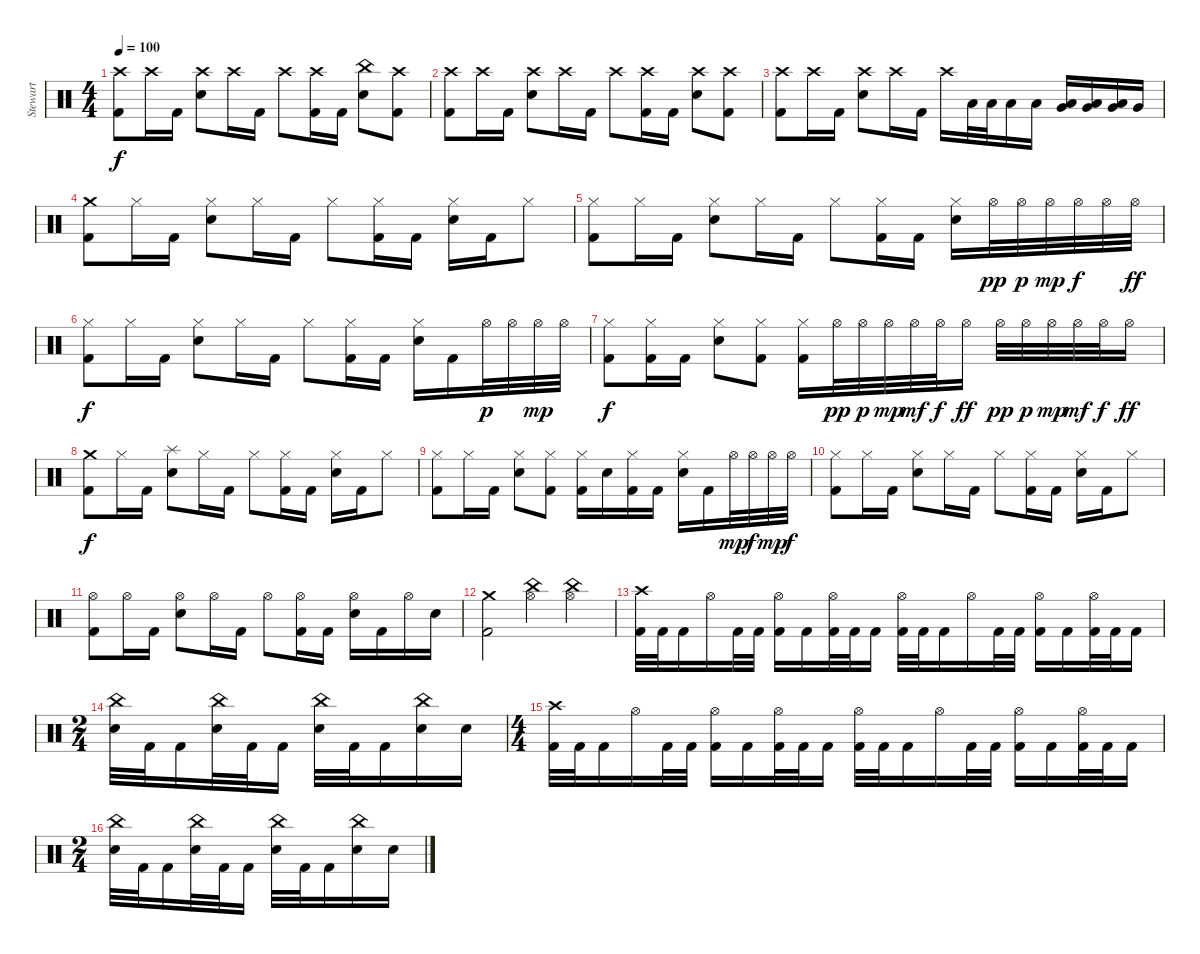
\track ("Stewart" "Stewart") {instrument percussion}
\staff {score}
\articulation defaults
\ts (4 4)
\tempo 100
\clef neutral
\ks c
("Crash high (hit)" "Kick (hit) 2").8{dy f} "Crash high (hit)".16 "Kick (hit) 2".16 ("Crash high (hit)" "Electric Snare (hit)").8 "Crash high (hit)".16 "Kick (hit) 2".16 "Crash high (hit)".8 ("Crash high (hit)" "Kick (hit) 2").16 "Kick (hit) 2".16 ("China (hit)" "Electric Snare (hit)").8 ("Crash high (hit)" "Kick (hit) 2").8 |
("Crash high (hit)" "Kick (hit) 2").8 "Crash high (hit)".16 "Kick (hit) 2".16 ("Crash high (hit)" "Electric Snare (hit)").8 "Crash high (hit)".16 "Kick (hit) 2".16 "Crash high (hit)".8 ("Crash high (hit)" "Kick (hit) 2").16 "Kick (hit) 2".16 ("Crash high (hit)" "Electric Snare (hit)").8 ("Crash high (hit)" "Kick (hit) 2").8 |
("Crash high (hit)" "Kick (hit) 2").8 "Crash high (hit)".16 "Kick (hit) 2".16 ("Crash high (hit)" "Electric Snare (hit)").8 "Crash high (hit)".16 "Kick (hit) 2".16 "Crash high (hit)".16 "Low Tom (hit)".32 "Low Tom (hit)".32 "Low Tom (hit)".16 "Low Tom (hit)".16 ("Low Tom (hit)" "Very Low Tom (hit)").16 ("Low Tom (hit)" "Very Low Tom (hit)").16 ("Low Tom (hit)" "Very Low Tom (hit)").16 "Very Low Tom (hit)".16 |
("Crash medium (hit)" "Kick (hit) 2").8 "Hi-Hat (closed)".16 "Kick (hit) 2".16 ("Hi-Hat (closed)" "Electric Snare (hit)").8 "Hi-Hat (closed)".16 "Kick (hit) 2".16 "Hi-Hat (closed)".8 ("Hi-Hat (closed)" "Kick (hit) 2").16 "Kick (hit) 2".16 ("Hi-Hat (closed)" "Electric Snare (hit)").16 "Kick (hit) 2".16 "Hi-Hat (closed)".8 |
("Hi-Hat (closed)" "Kick (hit) 2").8 "Hi-Hat (closed)".16 "Kick (hit) 2".16 ("Hi-Hat (closed)" "Electric Snare (hit)").8 "Hi-Hat (closed)".16 "Kick (hit) 2".16 "Hi-Hat (closed)".8 ("Hi-Hat (closed)" "Kick (hit) 2").16 "Kick (hit) 2".16 ("Hi-Hat (closed)" "Electric Snare (hit)").16 "Hi-Hat (open)".32{dy pp} "Hi-Hat (open)".32{dy p} "Hi-Hat (open)".32{dy mp} "Hi-Hat (open)".32{dy f} "Hi-Hat (open)".32 "Hi-Hat (open)".32{dy ff} |
("Hi-Hat (closed)" "Kick (hit) 2").8{dy f} "Hi-Hat (closed)".16 "Kick (hit) 2".16 ("Hi-Hat (closed)" "Electric Snare (hit)").8 "Hi-Hat (closed)".16 "Kick (hit) 2".16 "Hi-Hat (closed)".8 ("Hi-Hat (closed)" "Kick (hit) 2").16 "Kick (hit) 2".16 ("Hi-Hat (closed)" "Electric Snare (hit)").16 "Kick (hit) 2".16 "Hi-Hat (open)".32{dy p} "Hi-Hat (open)".32 "Hi-Hat (open)".32{dy mp} "Hi-Hat (open)".32 |
("Hi-Hat (closed)" "Kick (hit) 2").8{dy f} ("Hi-Hat (closed)" "Kick (hit) 2").16 "Kick (hit) 2".16 ("Hi-Hat (closed)" "Electric Snare (hit)").8 ("Hi-Hat (closed)" "Kick (hit) 2").8 ("Hi-Hat (closed)" "Kick (hit) 2").16 "Hi-Hat (open)".32{dy pp} "Hi-Hat (open)".32{dy p} "Hi-Hat (open)".32{dy mp} "Hi-Hat (open)".32{dy mf} "Hi-Hat (open)".32{dy f} "Hi-Hat (open)".16{dy ff} "Hi-Hat (open)".32{dy pp} "Hi-Hat (open)".32{dy p} "Hi-Hat (open)".32{dy mp} "Hi-Hat (open)".32{dy mf} "Hi-Hat (open)".32{dy f} "Hi-Hat (open)".16{dy ff} |
("Crash medium (hit)" "Kick (hit) 2").8{dy f} "Hi-Hat (closed)".16 "Kick (hit) 2".16 ("Splash (hit)" "Electric Snare (hit)").8 "Hi-Hat (closed)".16 "Kick (hit) 2".16 "Hi-Hat (closed)".8 ("Hi-Hat (closed)" "Kick (hit) 2").16 "Kick (hit) 2".16 ("Hi-Hat (closed)" "Electric Snare (hit)").16 "Kick (hit) 2".16 "Hi-Hat (closed)".8 |
("Hi-Hat (closed)" "Kick (hit) 2").8 "Hi-Hat (closed)".16 "Kick (hit) 2".16 ("Hi-Hat (closed)" "Electric Snare (hit)").8 ("Hi-Hat (closed)" "Kick (hit) 2").8 ("Hi-Hat (closed)" "Kick (hit) 2").16 "Electric Snare (hit)".16 ("Hi-Hat (closed)" "Kick (hit) 2").16 "Kick (hit) 2".16 ("Hi-Hat (closed)" "Electric Snare (hit)").16 "Kick (hit) 2".16 "Hi-Hat (open)".32{dy mp} "Hi-Hat (open)".32{dy f} "Hi-Hat (open)".32{dy mp} "Hi-Hat (open)".32{dy f} |
("Hi-Hat (closed)" "Kick (hit) 2").8 "Hi-Hat (closed)".16 "Kick (hit) 2".16 ("Hi-Hat (closed)" "Electric Snare (hit)").8 "Hi-Hat (closed)".16 "Kick (hit) 2".16 "Hi-Hat (closed)".8 ("Hi-Hat (closed)" "Kick (hit) 2").16 "Kick (hit) 2".16 ("Hi-Hat (closed)" "Electric Snare (hit)").16 "Kick (hit) 2".16 "Hi-Hat (closed)".8 |
("Hi-Hat (open)" "Kick (hit) 2").8 "Hi-Hat (open)".16 "Kick (hit) 2".16 ("Hi-Hat (open)" "Electric Snare (hit)").8 "Hi-Hat (open)".16 "Kick (hit) 2".16 "Hi-Hat (open)".8 ("Hi-Hat (open)" "Kick (hit) 2").16 "Kick (hit) 2".16 ("Hi-Hat (open)" "Electric Snare (hit)").16 "Kick (hit) 2".16 "Hi-Hat (open)".16 "Electric Snare (hit)".16 |
("Crash medium (hit)" "Kick (hit) 2").2 ("China (hit)" "Hi-Hat (open)").4 ("China (hit)" "Hi-Hat (open)").4 |
("Crash high (hit)" "Kick (hit) 2").32 "Kick (hit) 2".32 "Kick (hit) 2".16 "Hi-Hat (open)".16 "Kick (hit) 2".32 "Kick (hit) 2".32 ("Hi-Hat (open)" "Kick (hit) 2").16 "Kick (hit) 2".16 ("Hi-Hat (open)" "Kick (hit) 2").32 "Kick (hit) 2".32 "Kick (hit) 2".16 ("Hi-Hat (open)" "Kick (hit) 2").32 "Kick (hit) 2".32 "Kick (hit) 2".16 "Hi-Hat (open)".16 "Kick (hit) 2".32 "Kick (hit) 2".32 ("Hi-Hat (open)" "Kick (hit) 2").16 "Kick (hit) 2".16 ("Hi-Hat (open)" "Kick (hit) 2").32 "Kick (hit) 2".32 "Kick (hit) 2".16 |
\ts (2 4)
("China (hit)" "Electric Snare (hit)").32 "Kick (hit) 2".32 "Kick (hit) 2".16 ("China (hit)" "Electric Snare (hit)").32 "Kick (hit) 2".32 "Kick (hit) 2".16 ("China (hit)" "Electric Snare (hit)").32 "Kick (hit) 2".32 "Kick (hit) 2".16 ("China (hit)" "Electric Snare (hit)").16 "Electric Snare (hit)".16 |
\ts (4 4)
("Crash high (hit)" "Kick (hit) 2").32 "Kick (hit) 2".32 "Kick (hit) 2".16 "Hi-Hat (open)".16 "Kick (hit) 2".32 "Kick (hit) 2".32 ("Hi-Hat (open)" "Kick (hit) 2").16 "Kick (hit) 2".16 ("Hi-Hat (open)" "Kick (hit) 2").32 "Kick (hit) 2".32 "Kick (hit) 2".16 ("Hi-Hat (open)" "Kick (hit) 2").32 "Kick (hit) 2".32 "Kick (hit) 2".16 "Hi-Hat (open)".16 "Kick (hit) 2".32 "Kick (hit) 2".32 ("Hi-Hat (open)" "Kick (hit) 2").16 "Kick (hit) 2".16 ("Hi-Hat (open)" "Kick (hit) 2").32 "Kick (hit) 2".32 "Kick (hit) 2".16 |
\ts (2 4)
("China (hit)" "Electric Snare (hit)").32 "Kick (hit) 2".32 "Kick (hit) 2".16 ("China (hit)" "Electric Snare (hit)").32 "Kick (hit) 2".32 "Kick (hit) 2".16 ("China (hit)" "Electric Snare (hit)").32 "Kick (hit) 2".32 "Kick (hit) 2".16 ("China (hit)" "Electric Snare (hit)").16 "Electric Snare (hit)".16
